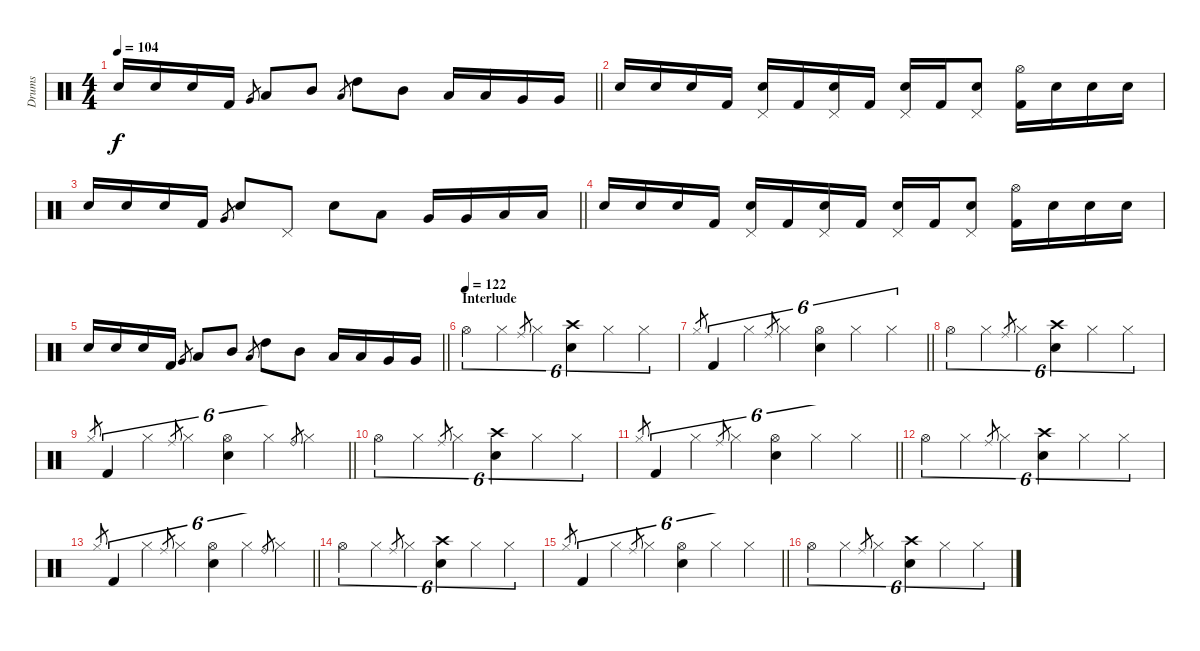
\track ("Drums" "Drums") {instrument percussion}
\staff {score}
\articulation defaults
\ts (4 4)
\tempo 104
\clef neutral
\barLineRight lightlight
\ks c "Snare (hit) 2".16{dy f} "Snare (hit) 2".16 "Snare (hit) 2".16 "Kick (hit) 2".16 "Very Low Tom (hit)".8{gr} "Low Tom (hit)".8 "Mid Tom (hit)".8 "Low Tom (hit)".8{gr} "High Tom (hit)".8 "Mid Tom (hit)".8 "Low Tom (hit)".16 "Low Tom (hit)".16 "Very Low Tom (hit)".16 "Very Low Tom (hit)".16
|
"Snare (hit) 2".16 "Snare (hit) 2".16 "Snare (hit) 2".16 "Kick (hit) 2".16 ("Pedal Hi-Hat (hit)" "Snare (hit) 2").16 "Kick (hit) 2".16 ("Pedal Hi-Hat (hit)" "Snare (hit) 2").16 "Kick (hit) 2".16 ("Pedal Hi-Hat (hit)" "Snare (hit) 2").16 "Kick (hit) 2".16 ("Pedal Hi-Hat (hit)" "Snare (hit) 2").8 ("Hi-Hat (open)" "Kick (hit) 2").16 "Snare (hit) 2".16 "Snare (hit) 2".16 "Snare (hit) 2".16 |
\barLineRight lightlight "Snare (hit) 2".16 "Snare (hit) 2".16 "Snare (hit) 2".16 "Kick (hit) 2".16 "Very Low Tom (hit)".8{gr} "Snare (hit) 2".8 "Pedal Hi-Hat (hit)".8 "Snare (hit) 2".8 "Low Floor Tom (hit)".8 "Very Low Tom (hit)".16 "Very Low Tom (hit)".16 "Low Floor Tom (hit)".16 "Low Floor Tom (hit)".16
|
"Snare (hit) 2".16 "Snare (hit) 2".16 "Snare (hit) 2".16 "Kick (hit) 2".16 ("Pedal Hi-Hat (hit)" "Snare (hit) 2").16 "Kick (hit) 2".16 ("Pedal Hi-Hat (hit)" "Snare (hit) 2").16 "Kick (hit) 2".16 ("Pedal Hi-Hat (hit)" "Snare (hit) 2").16 "Kick (hit) 2".16 ("Pedal Hi-Hat (hit)" "Snare (hit) 2").8 ("Hi-Hat (open)" "Kick (hit) 2").16 "Snare (hit) 2".16 "Snare (hit) 2".16 "Snare (hit) 2".16 |
\barLineRight lightlight "Snare (hit) 2".16 "Snare (hit) 2".16 "Snare (hit) 2".16 "Kick (hit) 2".16 "Very Low Tom (hit)".8{gr} "Low Tom (hit)".8 "Mid Tom (hit)".8 "Low Tom (hit)".8{gr} "High Tom (hit)".8 "Mid Tom (hit)".8 "Low Tom (hit)".16 "Low Tom (hit)".16 "Very Low Tom (hit)".16 "Very Low Tom (hit)".16
|
\section ("" "Interlude")
\tempo (122)
"Hi-Hat (open)".4{tu (6 4)} "Hi-Hat (closed)".4{tu (6 4)} "Ride (middle)".8{gr} "Hi-Hat (closed)".4{tu (6 4)} ("Crash high (hit)" "Snare (hit) 2").4{tu (6 4)} "Hi-Hat (closed)".4{tu (6 4)} "Hi-Hat (closed)".4{tu (6 4)} |
\barLineRight lightlight "Hi-Hat (closed)".8{gr} "Kick (hit) 2".4{tu (6 4)} "Hi-Hat (closed)".4{tu (6 4)} "Ride (middle)".8{gr} "Hi-Hat (closed)".4{tu (6 4)}
("Hi-Hat (open)" "Snare (hit) 2").4{tu (6 4)} "Hi-Hat (closed)".4{tu (6 4)} "Hi-Hat (closed)".4{tu (6 4)} |
"Hi-Hat (open)".4{tu (6 4)} "Hi-Hat (closed)".4{tu (6 4)} "Ride (middle)".8{gr} "Hi-Hat (closed)".4{tu (6 4)} ("Crash high (hit)" "Snare (hit) 2").4{tu (6 4)} "Hi-Hat (closed)".4{tu (6 4)} "Hi-Hat (closed)".4{tu (6 4)} |
\barLineRight lightlight "Hi-Hat (closed)".8{gr} "Kick (hit) 2".4{tu (6 4)} "Hi-Hat (closed)".4{tu (6 4)} "Ride (middle)".8{gr} "Hi-Hat (closed)".4{tu (6 4)}
("Hi-Hat (open)" "Snare (hit) 2").4{tu (6 4)} "Hi-Hat (closed)".4{tu (6 4)} "Ride (bell)".8{gr} "Hi-Hat (closed)".4{tu (6 4)} |
"Hi-Hat (open)".4{tu (6 4)} "Hi-Hat (closed)".4{tu (6 4)} "Ride (middle)".8{gr} "Hi-Hat (closed)".4{tu (6 4)} ("Crash high (hit)" "Snare (hit) 2").4{tu (6 4)} "Hi-Hat (closed)".4{tu (6 4)} "Hi-Hat (closed)".4{tu (6 4)} |
\barLineRight lightlight "Hi-Hat (closed)".8{gr} "Kick (hit) 2".4{tu (6 4)} "Hi-Hat (closed)".4{tu (6 4)} "Ride (middle)".8{gr} "Hi-Hat (closed)".4{tu (6 4)}
("Hi-Hat (open)" "Snare (hit) 2").4{tu (6 4)} "Hi-Hat (closed)".4{tu (6 4)} "Hi-Hat (closed)".4{tu (6 4)} |
"Hi-Hat (open)".4{tu (6 4)} "Hi-Hat (closed)".4{tu (6 4)} "Ride (middle)".8{gr} "Hi-Hat (closed)".4{tu (6 4)} ("Crash high (hit)" "Snare (hit) 2").4{tu (6 4)} "Hi-Hat (closed)".4{tu (6 4)} "Hi-Hat (closed)".4{tu (6 4)} |
\barLineRight lightlight "Hi-Hat (closed)".8{gr} "Kick (hit) 2".4{tu (6 4)} "Hi-Hat (closed)".4{tu (6 4)} "Ride (middle)".8{gr} "Hi-Hat (closed)".4{tu (6 4)}
("Hi-Hat (open)" "Snare (hit) 2").4{tu (6 4)} "Hi-Hat (closed)".4{tu (6 4)} "Ride (bell)".8{gr} "Hi-Hat (closed)".4{tu (6 4)} |
"Hi-Hat (open)".4{tu (6 4)} "Hi-Hat (closed)".4{tu (6 4)} "Ride (middle)".8{gr} "Hi-Hat (closed)".4{tu (6 4)} ("Crash high (hit)" "Snare (hit) 2").4{tu (6 4)} "Hi-Hat (closed)".4{tu (6 4)} "Hi-Hat (closed)".4{tu (6 4)} |
\barLineRight lightlight "Hi-Hat (closed)".8{gr} "Kick (hit) 2".4{tu (6 4)} "Hi-Hat (closed)".4{tu (6 4)} "Ride (middle)".8{gr} "Hi-Hat (closed)".4{tu (6 4)}
("Hi-Hat (open)" "Snare (hit) 2").4{tu (6 4)} "Hi-Hat (closed)".4{tu (6 4)} "Hi-Hat (closed)".4{tu (6 4)} |
"Hi-Hat (open)".4{tu (6 4)} "Hi-Hat (closed)".4{tu (6 4)} "Ride (middle)".8{gr} "Hi-Hat (closed)".4{tu (6 4)} ("Crash high (hit)" "Snare (hit) 2").4{tu (6 4)} "Hi-Hat (closed)".4{tu (6 4)} "Hi-Hat (closed)".4{tu (6 4)}
